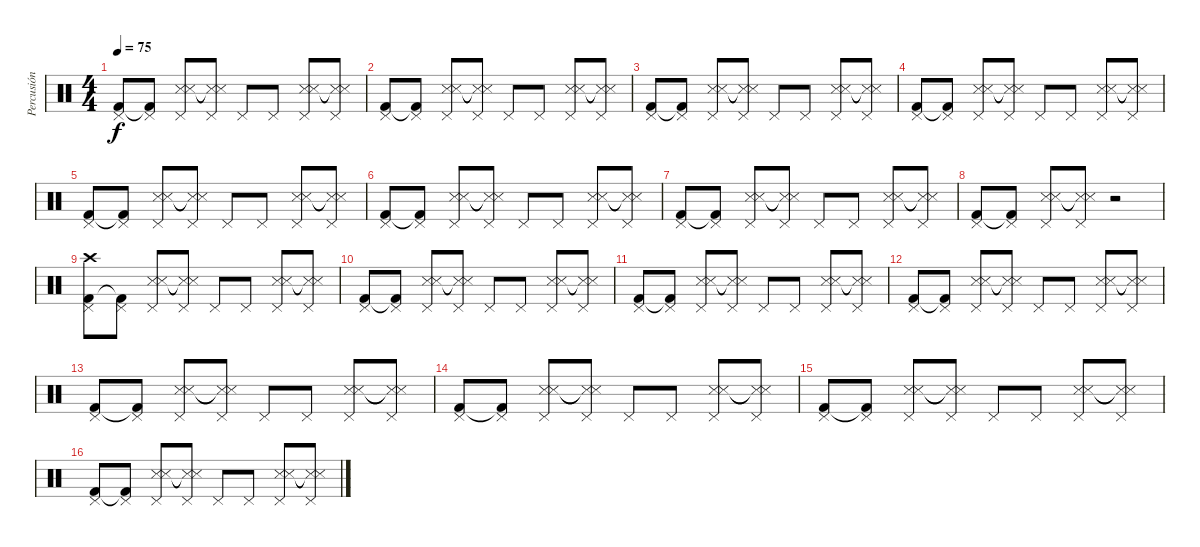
\track ("Percusión" "Percusión") {instrument percussion}
\staff {score}
\articulation defaults
\ts (4 4)
\tempo 75
\clef neutral
\ks c
("Kick (hit) 2" "Pedal Hi-Hat (hit)").8{dy f} ("Kick (hit) 2"{t} "Pedal Hi-Hat (hit)").8 ("Metronome (hit)" "Snare (side stick) 3" "Pedal Hi-Hat (hit)").8 ("Metronome (hit)"{t} "Snare (side stick) 3"{t} "Pedal Hi-Hat (hit)").8 "Pedal Hi-Hat (hit)".8 "Pedal Hi-Hat (hit)".8 ("Metronome (hit)" "Snare (side stick) 3" "Pedal Hi-Hat (hit)").8 ("Metronome (hit)"{t} "Snare (side stick) 3"{t} "Pedal Hi-Hat (hit)").8 |
("Kick (hit) 2" "Pedal Hi-Hat (hit)").8 ("Kick (hit) 2"{t} "Pedal Hi-Hat (hit)").8 ("Metronome (hit)" "Snare (side stick) 3" "Pedal Hi-Hat (hit)").8 ("Metronome (hit)"{t} "Snare (side stick) 3"{t} "Pedal Hi-Hat (hit)").8 "Pedal Hi-Hat (hit)".8 "Pedal Hi-Hat (hit)".8 ("Metronome (hit)" "Snare (side stick) 3" "Pedal Hi-Hat (hit)").8 ("Metronome (hit)"{t} "Snare (side stick) 3"{t} "Pedal Hi-Hat (hit)").8 |
("Kick (hit) 2" "Pedal Hi-Hat (hit)").8 ("Kick (hit) 2"{t} "Pedal Hi-Hat (hit)").8 ("Metronome (hit)" "Snare (side stick) 3" "Pedal Hi-Hat (hit)").8 ("Metronome (hit)"{t} "Snare (side stick) 3"{t} "Pedal Hi-Hat (hit)").8 "Pedal Hi-Hat (hit)".8 "Pedal Hi-Hat (hit)".8 ("Metronome (hit)" "Snare (side stick) 3" "Pedal Hi-Hat (hit)").8 ("Metronome (hit)"{t} "Snare (side stick) 3"{t} "Pedal Hi-Hat (hit)").8 |
("Kick (hit) 2" "Pedal Hi-Hat (hit)").8 ("Kick (hit) 2"{t} "Pedal Hi-Hat (hit)").8 ("Metronome (hit)" "Snare (side stick) 3" "Pedal Hi-Hat (hit)").8 ("Metronome (hit)"{t} "Snare (side stick) 3"{t} "Pedal Hi-Hat (hit)").8 "Pedal Hi-Hat (hit)".8 "Pedal Hi-Hat (hit)".8 ("Metronome (hit)" "Snare (side stick) 3" "Pedal Hi-Hat (hit)").8 ("Metronome (hit)"{t} "Snare (side stick) 3"{t} "Pedal Hi-Hat (hit)").8 |
("Kick (hit) 2" "Pedal Hi-Hat (hit)").8 ("Kick (hit) 2"{t} "Pedal Hi-Hat (hit)").8 ("Metronome (hit)" "Snare (side stick) 3" "Pedal Hi-Hat (hit)").8 ("Metronome (hit)"{t} "Snare (side stick) 3"{t} "Pedal Hi-Hat (hit)").8 "Pedal Hi-Hat (hit)".8 "Pedal Hi-Hat (hit)".8 ("Metronome (hit)" "Snare (side stick) 3" "Pedal Hi-Hat (hit)").8 ("Metronome (hit)"{t} "Snare (side stick) 3"{t} "Pedal Hi-Hat (hit)").8 |
("Kick (hit) 2" "Pedal Hi-Hat (hit)").8 ("Kick (hit) 2"{t} "Pedal Hi-Hat (hit)").8 ("Metronome (hit)" "Snare (side stick) 3" "Pedal Hi-Hat (hit)").8 ("Metronome (hit)"{t} "Snare (side stick) 3"{t} "Pedal Hi-Hat (hit)").8 "Pedal Hi-Hat (hit)".8 "Pedal Hi-Hat (hit)".8 ("Metronome (hit)" "Snare (side stick) 3" "Pedal Hi-Hat (hit)").8 ("Metronome (hit)"{t} "Snare (side stick) 3"{t} "Pedal Hi-Hat (hit)").8 |
("Kick (hit) 2" "Pedal Hi-Hat (hit)").8 ("Kick (hit) 2"{t} "Pedal Hi-Hat (hit)").8 ("Metronome (hit)" "Snare (side stick) 3" "Pedal Hi-Hat (hit)").8 ("Metronome (hit)"{t} "Snare (side stick) 3"{t} "Pedal Hi-Hat (hit)").8 "Pedal Hi-Hat (hit)".8 "Pedal Hi-Hat (hit)".8 ("Metronome (hit)" "Snare (side stick) 3" "Pedal Hi-Hat (hit)").8 ("Metronome (hit)"{t} "Snare (side stick) 3"{t} "Pedal Hi-Hat (hit)").8 |
("Kick (hit) 2" "Pedal Hi-Hat (hit)").8 ("Kick (hit) 2"{t} "Pedal Hi-Hat (hit)").8 ("Metronome (hit)" "Snare (side stick) 3" "Pedal Hi-Hat (hit)").8 ("Metronome (hit)"{t} "Snare (side stick) 3"{t} "Pedal Hi-Hat (hit)").8 r.2 |
("Kick (hit) 2" "Pedal Hi-Hat (hit)" "Crash high (hit)").8 ("Kick (hit) 2"{t} "Pedal Hi-Hat (hit)").8 ("Metronome (hit)" "Snare (side stick) 3" "Pedal Hi-Hat (hit)").8 ("Metronome (hit)"{t} "Snare (side stick) 3"{t} "Pedal Hi-Hat (hit)").8 "Pedal Hi-Hat (hit)".8 "Pedal Hi-Hat (hit)".8 ("Metronome (hit)" "Snare (side stick) 3" "Pedal Hi-Hat (hit)").8 ("Metronome (hit)"{t} "Snare (side stick) 3"{t} "Pedal Hi-Hat (hit)").8 |
("Kick (hit) 2" "Pedal Hi-Hat (hit)").8 ("Kick (hit) 2"{t} "Pedal Hi-Hat (hit)").8 ("Metronome (hit)" "Snare (side stick) 3" "Pedal Hi-Hat (hit)").8 ("Metronome (hit)"{t} "Snare (side stick) 3"{t} "Pedal Hi-Hat (hit)").8 "Pedal Hi-Hat (hit)".8 "Pedal Hi-Hat (hit)".8 ("Metronome (hit)" "Snare (side stick) 3" "Pedal Hi-Hat (hit)").8 ("Metronome (hit)"{t} "Snare (side stick) 3"{t} "Pedal Hi-Hat (hit)").8 |
("Kick (hit) 2" "Pedal Hi-Hat (hit)").8 ("Kick (hit) 2"{t} "Pedal Hi-Hat (hit)").8 ("Metronome (hit)" "Snare (side stick) 3" "Pedal Hi-Hat (hit)").8 ("Metronome (hit)"{t} "Snare (side stick) 3"{t} "Pedal Hi-Hat (hit)").8 "Pedal Hi-Hat (hit)".8 "Pedal Hi-Hat (hit)".8 ("Metronome (hit)" "Snare (side stick) 3" "Pedal Hi-Hat (hit)").8 ("Metronome (hit)"{t} "Snare (side stick) 3"{t} "Pedal Hi-Hat (hit)").8 |
("Kick (hit) 2" "Pedal Hi-Hat (hit)").8 ("Kick (hit) 2"{t} "Pedal Hi-Hat (hit)").8 ("Metronome (hit)" "Snare (side stick) 3" "Pedal Hi-Hat (hit)").8 ("Metronome (hit)"{t} "Snare (side stick) 3"{t} "Pedal Hi-Hat (hit)").8 "Pedal Hi-Hat (hit)".8 "Pedal Hi-Hat (hit)".8 ("Metronome (hit)" "Snare (side stick) 3" "Pedal Hi-Hat (hit)").8 ("Metronome (hit)"{t} "Snare (side stick) 3"{t} "Pedal Hi-Hat (hit)").8 |
("Kick (hit) 2" "Pedal Hi-Hat (hit)").8 ("Kick (hit) 2"{t} "Pedal Hi-Hat (hit)").8 ("Metronome (hit)" "Snare (side stick) 3" "Pedal Hi-Hat (hit)").8 ("Metronome (hit)"{t} "Snare (side stick) 3"{t} "Pedal Hi-Hat (hit)").8 "Pedal Hi-Hat (hit)".8 "Pedal Hi-Hat (hit)".8 ("Metronome (hit)" "Snare (side stick) 3" "Pedal Hi-Hat (hit)").8 ("Metronome (hit)"{t} "Snare (side stick) 3"{t} "Pedal Hi-Hat (hit)").8 |
("Kick (hit) 2" "Pedal Hi-Hat (hit)").8 ("Kick (hit) 2"{t} "Pedal Hi-Hat (hit)").8 ("Metronome (hit)" "Snare (side stick) 3" "Pedal Hi-Hat (hit)").8 ("Metronome (hit)"{t} "Snare (side stick) 3"{t} "Pedal Hi-Hat (hit)").8 "Pedal Hi-Hat (hit)".8 "Pedal Hi-Hat (hit)".8 ("Metronome (hit)" "Snare (side stick) 3" "Pedal Hi-Hat (hit)").8 ("Metronome (hit)"{t} "Snare (side stick) 3"{t} "Pedal Hi-Hat (hit)").8 |
("Kick (hit) 2" "Pedal Hi-Hat (hit)").8 ("Kick (hit) 2"{t} "Pedal Hi-Hat (hit)").8 ("Metronome (hit)" "Snare (side stick) 3" "Pedal Hi-Hat (hit)").8 ("Metronome (hit)"{t} "Snare (side stick) 3"{t} "Pedal Hi-Hat (hit)").8 "Pedal Hi-Hat (hit)".8 "Pedal Hi-Hat (hit)".8 ("Metronome (hit)" "Snare (side stick) 3" "Pedal Hi-Hat (hit)").8 ("Metronome (hit)"{t} "Snare (side stick) 3"{t} "Pedal Hi-Hat (hit)").8 |
("Kick (hit) 2" "Pedal Hi-Hat (hit)").8 ("Kick (hit) 2"{t} "Pedal Hi-Hat (hit)").8 ("Metronome (hit)" "Snare (side stick) 3" "Pedal Hi-Hat (hit)").8 ("Metronome (hit)"{t} "Snare (side stick) 3"{t} "Pedal Hi-Hat (hit)").8 "Pedal Hi-Hat (hit)".8 "Pedal Hi-Hat (hit)".8 ("Metronome (hit)" "Snare (side stick) 3" "Pedal Hi-Hat (hit)").8 ("Metronome (hit)"{t} "Snare (side stick) 3"{t} "Pedal Hi-Hat (hit)").8
